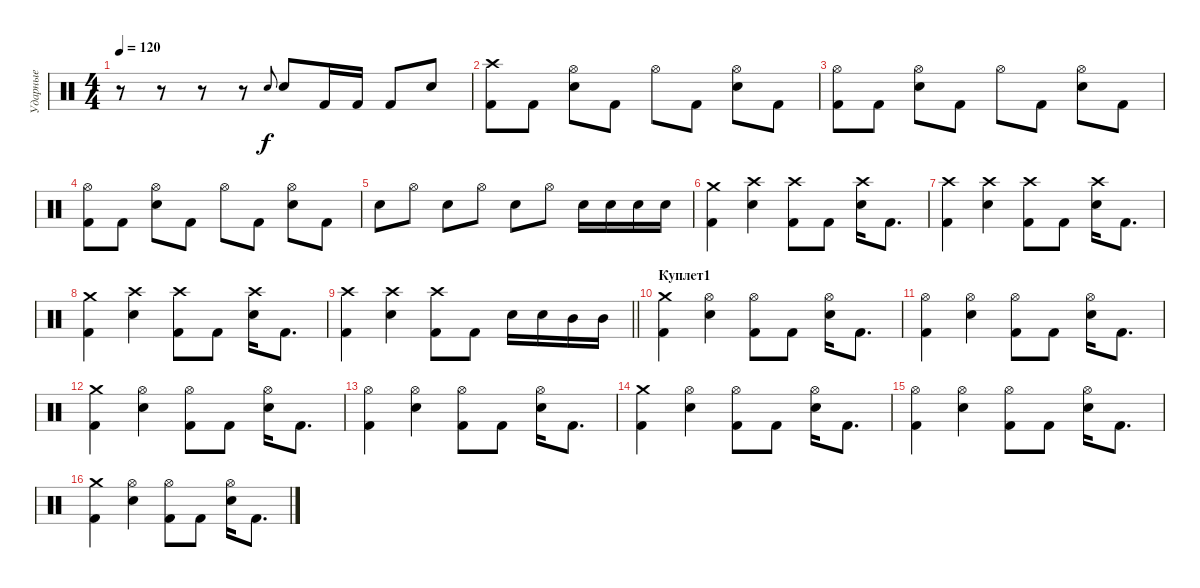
\track ("Ударные" "Ударные") {instrument percussion}
\staff {score}
\articulation defaults
\ts (4 4)
\tempo 120
\clef neutral
\ks c
r.8{dy f} r.8 r.8 r.8 "Electric Snare (hit)".8{gr onbeat} "Electric Snare (hit)".8{volume 16} "Kick (hit) 2".16 "Kick (hit) 2".16 "Kick (hit) 2".8 "Electric Snare (hit)".8 |
("Crash high (hit)" "Kick (hit) 2").8 "Kick (hit) 2".8 ("Hi-Hat (open)" "Electric Snare (hit)").8 "Kick (hit) 2".8 "Hi-Hat (open)".8 "Kick (hit) 2".8 ("Hi-Hat (open)" "Electric Snare (hit)").8 "Kick (hit) 2".8 |
("Hi-Hat (open)" "Kick (hit) 2").8 "Kick (hit) 2".8 ("Hi-Hat (open)" "Electric Snare (hit)").8 "Kick (hit) 2".8 "Hi-Hat (open)".8 "Kick (hit) 2".8 ("Hi-Hat (open)" "Electric Snare (hit)").8 "Kick (hit) 2".8 |
("Hi-Hat (open)" "Kick (hit) 2").8 "Kick (hit) 2".8 ("Hi-Hat (open)" "Electric Snare (hit)").8 "Kick (hit) 2".8 "Hi-Hat (open)".8 "Kick (hit) 2".8 ("Hi-Hat (open)" "Electric Snare (hit)").8 "Kick (hit) 2".8 |
"Electric Snare (hit)".8 "Hi-Hat (open)".8 "Electric Snare (hit)".8 "Hi-Hat (open)".8 "Electric Snare (hit)".8 "Hi-Hat (open)".8 "Electric Snare (hit)".16 "Electric Snare (hit)".16 "Electric Snare (hit)".16 "Electric Snare (hit)".16 |
("Crash medium (hit)" "Kick (hit) 2").4 ("Crash high (hit)" "Electric Snare (hit)").4 ("Crash high (hit)" "Kick (hit) 2").8 "Kick (hit) 2".8 ("Crash high (hit)" "Electric Snare (hit)").16 "Kick (hit) 2".8{d} |
("Crash high (hit)" "Kick (hit) 2").4 ("Crash high (hit)" "Electric Snare (hit)").4 ("Crash high (hit)" "Kick (hit) 2").8 "Kick (hit) 2".8 ("Crash high (hit)" "Electric Snare (hit)").16 "Kick (hit) 2".8{d} |
("Crash medium (hit)" "Kick (hit) 2").4 ("Crash high (hit)" "Electric Snare (hit)").4 ("Crash high (hit)" "Kick (hit) 2").8 "Kick (hit) 2".8 ("Crash high (hit)" "Electric Snare (hit)").16 "Kick (hit) 2".8{d} |
\barLineRight lightlight
("Crash high (hit)" "Kick (hit) 2").4 ("Crash high (hit)" "Electric Snare (hit)").4 ("Crash high (hit)" "Kick (hit) 2").8 "Kick (hit) 2".8 "Electric Snare (hit)".16 "Electric Snare (hit)".16 "Mid Tom (hit)".16 "Mid Tom (hit)".16 |
\section ("" "Куплет1")
("Crash medium (hit)" "Kick (hit) 2").4 ("Hi-Hat (open)" "Electric Snare (hit)").4 ("Hi-Hat (open)" "Kick (hit) 2").8 "Kick (hit) 2".8 ("Hi-Hat (open)" "Electric Snare (hit)").16 "Kick (hit) 2".8{d} |
("Hi-Hat (open)" "Kick (hit) 2").4 ("Hi-Hat (open)" "Electric Snare (hit)").4 ("Hi-Hat (open)" "Kick (hit) 2").8 "Kick (hit) 2".8 ("Hi-Hat (open)" "Electric Snare (hit)").16 "Kick (hit) 2".8{d} |
("Crash medium (hit)" "Kick (hit) 2").4 ("Hi-Hat (open)" "Electric Snare (hit)").4 ("Hi-Hat (open)" "Kick (hit) 2").8 "Kick (hit) 2".8 ("Hi-Hat (open)" "Electric Snare (hit)").16 "Kick (hit) 2".8{d} |
("Hi-Hat (open)" "Kick (hit) 2").4 ("Hi-Hat (open)" "Electric Snare (hit)").4 ("Hi-Hat (open)" "Kick (hit) 2").8 "Kick (hit) 2".8 ("Hi-Hat (open)" "Electric Snare (hit)").16 "Kick (hit) 2".8{d} |
("Crash medium (hit)" "Kick (hit) 2").4 ("Hi-Hat (open)" "Electric Snare (hit)").4 ("Hi-Hat (open)" "Kick (hit) 2").8 "Kick (hit) 2".8 ("Hi-Hat (open)" "Electric Snare (hit)").16 "Kick (hit) 2".8{d} |
("Hi-Hat (open)" "Kick (hit) 2").4 ("Hi-Hat (open)" "Electric Snare (hit)").4 ("Hi-Hat (open)" "Kick (hit) 2").8 "Kick (hit) 2".8 ("Hi-Hat (open)" "Electric Snare (hit)").16 "Kick (hit) 2".8{d} |
("Crash medium (hit)" "Kick (hit) 2").4 ("Hi-Hat (open)" "Electric Snare (hit)").4 ("Hi-Hat (open)" "Kick (hit) 2").8 "Kick (hit) 2".8 ("Hi-Hat (open)" "Electric Snare (hit)").16 "Kick (hit) 2".8{d}
